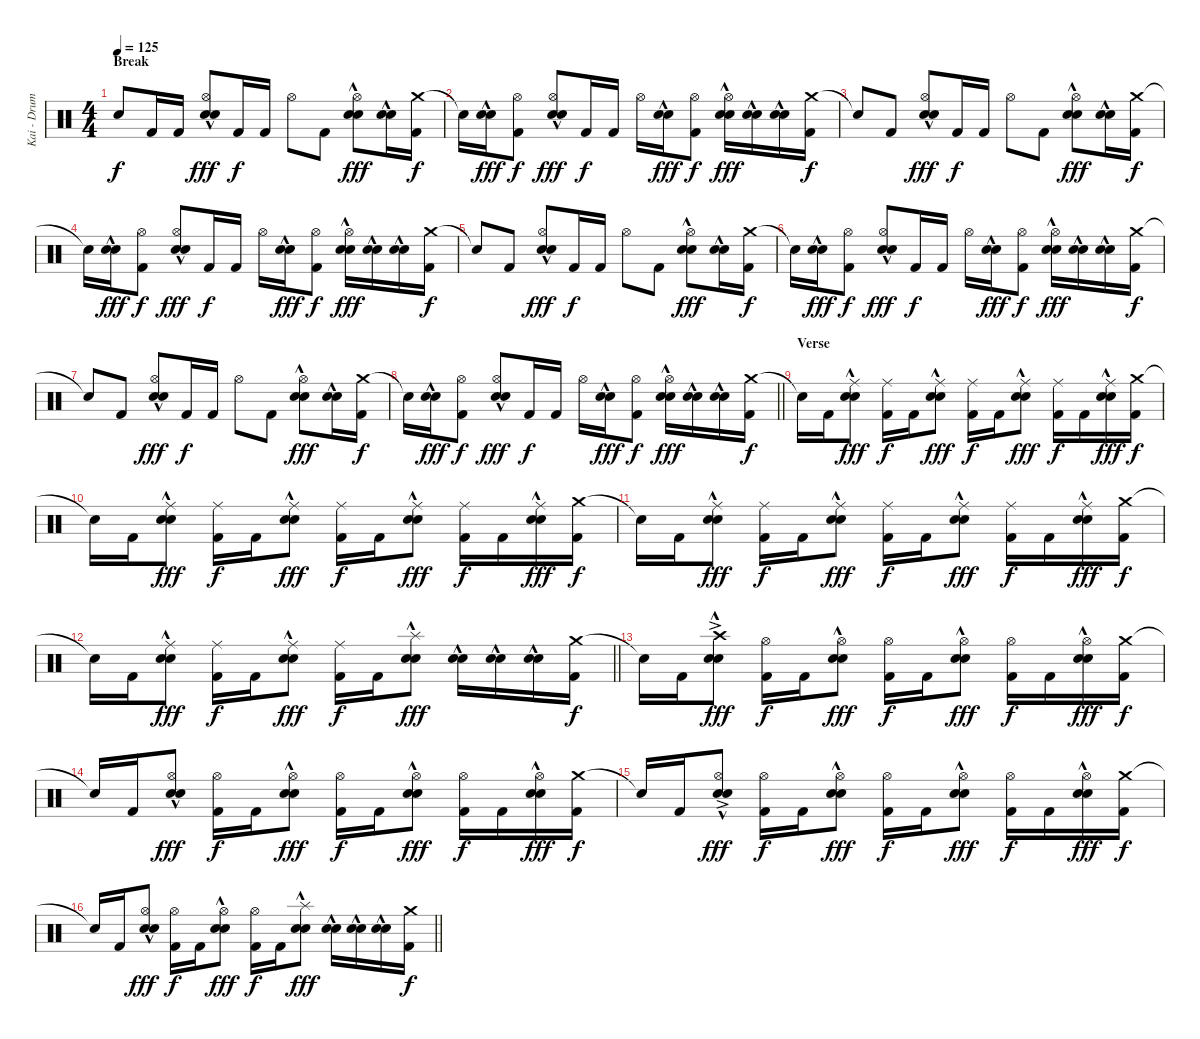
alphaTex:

\track ("Kai - Drums" "Kai - Drum") {instrument percussion}
\staff {score}
\articulation defaults
\ts (4 4)
\section ("" "Break")
\tempo 125
\clef neutral
\ks c "Snare (hit)"{t}.8{dy f} "Kick (hit) 2".16 "Kick (hit) 2".16
("Hi-Hat (open)" "Electric Snare (hit)"{hac} "Snare (hit) 2").8{dy fff} "Kick (hit) 2".16{dy f} "Kick (hit) 2".16 "Hi-Hat (open)".8 "Kick (hit) 2".8 ("Hi-Hat (open)" "Electric Snare (hit)"{hac} "Snare (hit) 2").8{dy fff} ("Electric Snare (hit)"{hac} "Snare (hit) 2").16 ("Crash medium (hit)" "Kick (hit) 2").16{dy f} |
"Snare (hit)"{t}.16 ("Electric Snare (hit)"{hac} "Snare (hit) 2").16{dy fff} ("Hi-Hat (open)" "Kick (hit) 2").8{dy f} ("Hi-Hat (open)" "Electric Snare (hit)"{hac} "Snare (hit) 2").8{dy fff} "Kick (hit) 2".16{dy f} "Kick (hit) 2".16 "Hi-Hat (open)".16 ("Electric Snare (hit)"{hac} "Snare (hit) 2").16{dy fff} ("Hi-Hat (open)" "Kick (hit) 2").8{dy f} ("Hi-Hat (open)" "Electric Snare (hit)"{hac} "Snare (hit) 2").16{dy fff} ("Electric Snare (hit)"{hac} "Snare (hit) 2").16 ("Electric Snare (hit)"{hac} "Snare (hit) 2").16 ("Crash medium (hit)" "Kick (hit) 2").16{dy f} |
"Snare (hit)"{t}.8 "Kick (hit) 2".8 ("Hi-Hat (open)" "Electric Snare (hit)"{hac} "Snare (hit) 2").8{dy fff} "Kick (hit) 2".16{dy f} "Kick (hit) 2".16 "Hi-Hat (open)".8 "Kick (hit) 2".8 ("Hi-Hat (open)" "Electric Snare (hit)"{hac} "Snare (hit) 2").8{dy fff} ("Electric Snare (hit)"{hac} "Snare (hit) 2").16 ("Crash medium (hit)" "Kick (hit) 2").16{dy f} |
"Snare (hit)"{t}.16 ("Electric Snare (hit)"{hac} "Snare (hit) 2").16{dy fff} ("Hi-Hat (open)" "Kick (hit) 2").8{dy f} ("Hi-Hat (open)" "Electric Snare (hit)"{hac} "Snare (hit) 2").8{dy fff} "Kick (hit) 2".16{dy f} "Kick (hit) 2".16 "Hi-Hat (open)".16 ("Electric Snare (hit)"{hac} "Snare (hit) 2").16{dy fff} ("Hi-Hat (open)" "Kick (hit) 2").8{dy f} ("Hi-Hat (open)" "Electric Snare (hit)"{hac} "Snare (hit) 2").16{dy fff} ("Electric Snare (hit)"{hac} "Snare (hit) 2").16 ("Electric Snare (hit)"{hac} "Snare (hit) 2").16 ("Crash medium (hit)" "Kick (hit) 2").16{dy f} |
"Snare (hit)"{t}.8 "Kick (hit) 2".8 ("Hi-Hat (open)" "Electric Snare (hit)"{hac} "Snare (hit) 2").8{dy fff} "Kick (hit) 2".16{dy f} "Kick (hit) 2".16 "Hi-Hat (open)".8 "Kick (hit) 2".8 ("Hi-Hat (open)" "Electric Snare (hit)"{hac} "Snare (hit) 2").8{dy fff} ("Electric Snare (hit)"{hac} "Snare (hit) 2").16 ("Crash medium (hit)" "Kick (hit) 2").16{dy f} |
"Snare (hit)"{t}.16 ("Electric Snare (hit)"{hac} "Snare (hit) 2").16{dy fff} ("Hi-Hat (open)" "Kick (hit) 2").8{dy f} ("Hi-Hat (open)" "Electric Snare (hit)"{hac} "Snare (hit) 2").8{dy fff} "Kick (hit) 2".16{dy f} "Kick (hit) 2".16 "Hi-Hat (open)".16 ("Electric Snare (hit)"{hac} "Snare (hit) 2").16{dy fff} ("Hi-Hat (open)" "Kick (hit) 2").8{dy f} ("Hi-Hat (open)" "Electric Snare (hit)"{hac} "Snare (hit) 2").16{dy fff} ("Electric Snare (hit)"{hac} "Snare (hit) 2").16 ("Electric Snare (hit)"{hac} "Snare (hit) 2").16 ("Crash medium (hit)" "Kick (hit) 2").16{dy f} |
"Snare (hit)"{t}.8 "Kick (hit) 2".8 ("Hi-Hat (open)" "Electric Snare (hit)"{hac} "Snare (hit) 2").8{dy fff} "Kick (hit) 2".16{dy f} "Kick (hit) 2".16 "Hi-Hat (open)".8 "Kick (hit) 2".8 ("Hi-Hat (open)" "Electric Snare (hit)"{hac} "Snare (hit) 2").8{dy fff} ("Electric Snare (hit)"{hac} "Snare (hit) 2").16 ("Crash medium (hit)" "Kick (hit) 2").16{dy f} |
\barLineRight lightlight "Snare (hit)"{t}.16
("Electric Snare (hit)"{hac} "Snare (hit) 2").16{dy fff} ("Hi-Hat (open)" "Kick (hit) 2").8{dy f} ("Hi-Hat (open)" "Electric Snare (hit)"{hac} "Snare (hit) 2").8{dy fff} "Kick (hit) 2".16{dy f} "Kick (hit) 2".16 "Hi-Hat (open)".16 ("Electric Snare (hit)"{hac} "Snare (hit) 2").16{dy fff} ("Hi-Hat (open)" "Kick (hit) 2").8{dy f} ("Hi-Hat (open)" "Electric Snare (hit)"{hac} "Snare (hit) 2").16{dy fff} ("Electric Snare (hit)"{hac} "Snare (hit) 2").16 ("Electric Snare (hit)"{hac} "Snare (hit) 2").16 ("Crash medium (hit)" "Kick (hit) 2").16{dy f} |
\section ("" "Verse")
"Snare (hit)"{t}.16 "Kick (hit) 2".16 ("Ride (middle)" "Electric Snare (hit)"{hac} "Snare (hit) 2").8{dy fff} ("Ride (middle)" "Kick (hit) 2").16{dy f} "Kick (hit) 2".16 ("Ride (middle)" "Electric Snare (hit)"{hac} "Snare (hit) 2").8{dy fff} ("Ride (middle)" "Kick (hit) 2").16{dy f} "Kick (hit) 2".16 ("Ride (middle)" "Electric Snare (hit)"{hac} "Snare (hit) 2").8{dy fff} ("Ride (middle)" "Kick (hit) 2").16{dy f} "Kick (hit) 2".16 ("Ride (middle)" "Electric Snare (hit)"{hac} "Snare (hit) 2").16{dy fff} ("Crash medium (hit)" "Kick (hit) 2").16{dy f} |
"Snare (hit)"{t}.16 "Kick (hit) 2".16 ("Ride (middle)" "Electric Snare (hit)"{hac} "Snare (hit) 2").8{dy fff} ("Ride (middle)" "Kick (hit) 2").16{dy f} "Kick (hit) 2".16 ("Ride (middle)" "Electric Snare (hit)"{hac} "Snare (hit) 2").8{dy fff} ("Ride (middle)" "Kick (hit) 2").16{dy f} "Kick (hit) 2".16 ("Ride (middle)" "Electric Snare (hit)"{hac} "Snare (hit) 2").8{dy fff} ("Ride (middle)" "Kick (hit) 2").16{dy f} "Kick (hit) 2".16 ("Ride (middle)" "Electric Snare (hit)"{hac} "Snare (hit) 2").16{dy fff} ("Crash medium (hit)" "Kick (hit) 2").16{dy f} |
"Snare (hit)"{t}.16 "Kick (hit) 2".16 ("Ride (middle)" "Electric Snare (hit)"{hac} "Snare (hit) 2").8{dy fff} ("Ride (middle)" "Kick (hit) 2").16{dy f} "Kick (hit) 2".16 ("Ride (middle)" "Electric Snare (hit)"{hac} "Snare (hit) 2").8{dy fff} ("Ride (middle)" "Kick (hit) 2").16{dy f} "Kick (hit) 2".16 ("Ride (middle)" "Electric Snare (hit)"{hac} "Snare (hit) 2").8{dy fff} ("Ride (middle)" "Kick (hit) 2").16{dy f} "Kick (hit) 2".16 ("Ride (middle)" "Electric Snare (hit)"{hac} "Snare (hit) 2").16{dy fff} ("Crash medium (hit)" "Kick (hit) 2").16{dy f} |
\barLineRight lightlight "Snare (hit)"{t}.16 "Kick (hit) 2".16
("Ride (middle)" "Electric Snare (hit)"{hac} "Snare (hit) 2").8{dy fff} ("Ride (middle)" "Kick (hit) 2").16{dy f} "Kick (hit) 2".16 ("Ride (middle)" "Electric Snare (hit)"{hac} "Snare (hit) 2").8{dy fff} ("Ride (middle)" "Kick (hit) 2").16{dy f} "Kick (hit) 2".16 ("Splash (hit)"{hac} "Electric Snare (hit)"{hac} "Snare (hit) 2").8{dy fff} ("Electric Snare (hit)"{hac} "Snare (hit) 2").16 ("Electric Snare (hit)"{hac} "Snare (hit) 2").16 ("Electric Snare (hit)"{hac} "Snare (hit) 2").16 ("Crash medium (hit)" "Kick (hit) 2").16{dy f} |
"Snare (hit)"{t}.16 "Kick (hit) 2".16 ("Crash high (hit)"{ac} "Electric Snare (hit)"{hac} "Snare (hit) 2").8{dy fff} ("Hi-Hat (open)" "Kick (hit) 2").16{dy f} "Kick (hit) 2".16 ("Hi-Hat (open)" "Electric Snare (hit)"{hac} "Snare (hit) 2").8{dy fff} ("Hi-Hat (open)" "Kick (hit) 2").16{dy f} "Kick (hit) 2".16 ("Hi-Hat (open)" "Electric Snare (hit)"{hac} "Snare (hit) 2").8{dy fff} ("Hi-Hat (open)" "Kick (hit) 2").16{dy f} "Kick (hit) 2".16 ("Hi-Hat (open)" "Electric Snare (hit)"{hac} "Snare (hit) 2").16{dy fff} ("Crash medium (hit)" "Kick (hit) 2").16{dy f} |
"Snare (hit)"{t}.16 "Kick (hit) 2".16 ("Hi-Hat (open)" "Electric Snare (hit)"{hac} "Snare (hit) 2").8{dy fff} ("Hi-Hat (open)" "Kick (hit) 2").16{dy f} "Kick (hit) 2".16 ("Hi-Hat (open)" "Electric Snare (hit)"{hac} "Snare (hit) 2").8{dy fff} ("Hi-Hat (open)" "Kick (hit) 2").16{dy f} "Kick (hit) 2".16 ("Hi-Hat (open)" "Electric Snare (hit)"{hac} "Snare (hit) 2").8{dy fff} ("Hi-Hat (open)" "Kick (hit) 2").16{dy f} "Kick (hit) 2".16 ("Hi-Hat (open)" "Electric Snare (hit)"{hac} "Snare (hit) 2").16{dy fff} ("Crash medium (hit)" "Kick (hit) 2").16{dy f} |
"Snare (hit)"{t}.16 "Kick (hit) 2".16 ("Hi-Hat (open)"{ac} "Electric Snare (hit)"{hac} "Snare (hit) 2").8{dy fff} ("Hi-Hat (open)" "Kick (hit) 2").16{dy f} "Kick (hit) 2".16 ("Hi-Hat (open)" "Electric Snare (hit)"{hac} "Snare (hit) 2").8{dy fff} ("Hi-Hat (open)" "Kick (hit) 2").16{dy f} "Kick (hit) 2".16 ("Hi-Hat (open)" "Electric Snare (hit)"{hac} "Snare (hit) 2").8{dy fff} ("Hi-Hat (open)" "Kick (hit) 2").16{dy f} "Kick (hit) 2".16 ("Hi-Hat (open)" "Electric Snare (hit)"{hac} "Snare (hit) 2").16{dy fff} ("Crash medium (hit)" "Kick (hit) 2").16{dy f} |
\barLineRight lightlight "Snare (hit)"{t}.16 "Kick (hit) 2".16
("Hi-Hat (open)" "Electric Snare (hit)"{hac} "Snare (hit) 2").8{dy fff} ("Hi-Hat (open)" "Kick (hit) 2").16{dy f} "Kick (hit) 2".16 ("Hi-Hat (open)" "Electric Snare (hit)"{hac} "Snare (hit) 2").8{dy fff} ("Hi-Hat (open)" "Kick (hit) 2").16{dy f} "Kick (hit) 2".16 ("Splash (hit)"{hac} "Electric Snare (hit)"{hac} "Snare (hit) 2").8{dy fff} ("Electric Snare (hit)"{hac} "Snare (hit) 2").16 ("Electric Snare (hit)"{hac} "Snare (hit) 2").16 ("Electric Snare (hit)"{hac} "Snare (hit) 2").16 ("Crash medium (hit)" "Kick (hit) 2").16{dy f}
